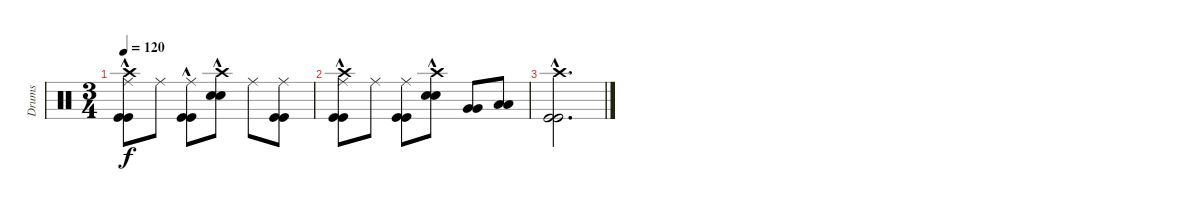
\track ("Drums" "Drums") {instrument percussion}
\staff {score}
\articulation defaults
\ts (3 4)
\tempo 120
\clef neutral
\ks c
("Kick (hit)" "Kick (hit)" "Ride (middle)" "Crash high (hit)"{hac}).8{dy f} "Ride (middle)".8 ("Kick (hit)"{hac} "Kick (hit)"{hac} "Ride (middle)").8 ("Snare (hit) 2"{hac} "Snare (hit) 2"{hac} "Crash high (hit)"{hac}).8 "Ride (middle)".8 ("Kick (hit)" "Kick (hit)" "Ride (middle)").8 |
("Kick (hit)" "Kick (hit)" "Ride (middle)" "Crash high (hit)"{hac}).8 "Ride (middle)".8 ("Kick (hit)" "Kick (hit)" "Ride (middle)").8 ("Snare (hit) 2" "Snare (hit) 2" "Crash high (hit)"{hac}).8 ("Very Low Tom (hit)" "Very Low Tom (hit)").8 ("Low Floor Tom (hit)" "Low Floor Tom (hit)").8 |
("Kick (hit)"{hac} "Kick (hit)"{hac} "Crash high (hit)"{hac}).2{d}
